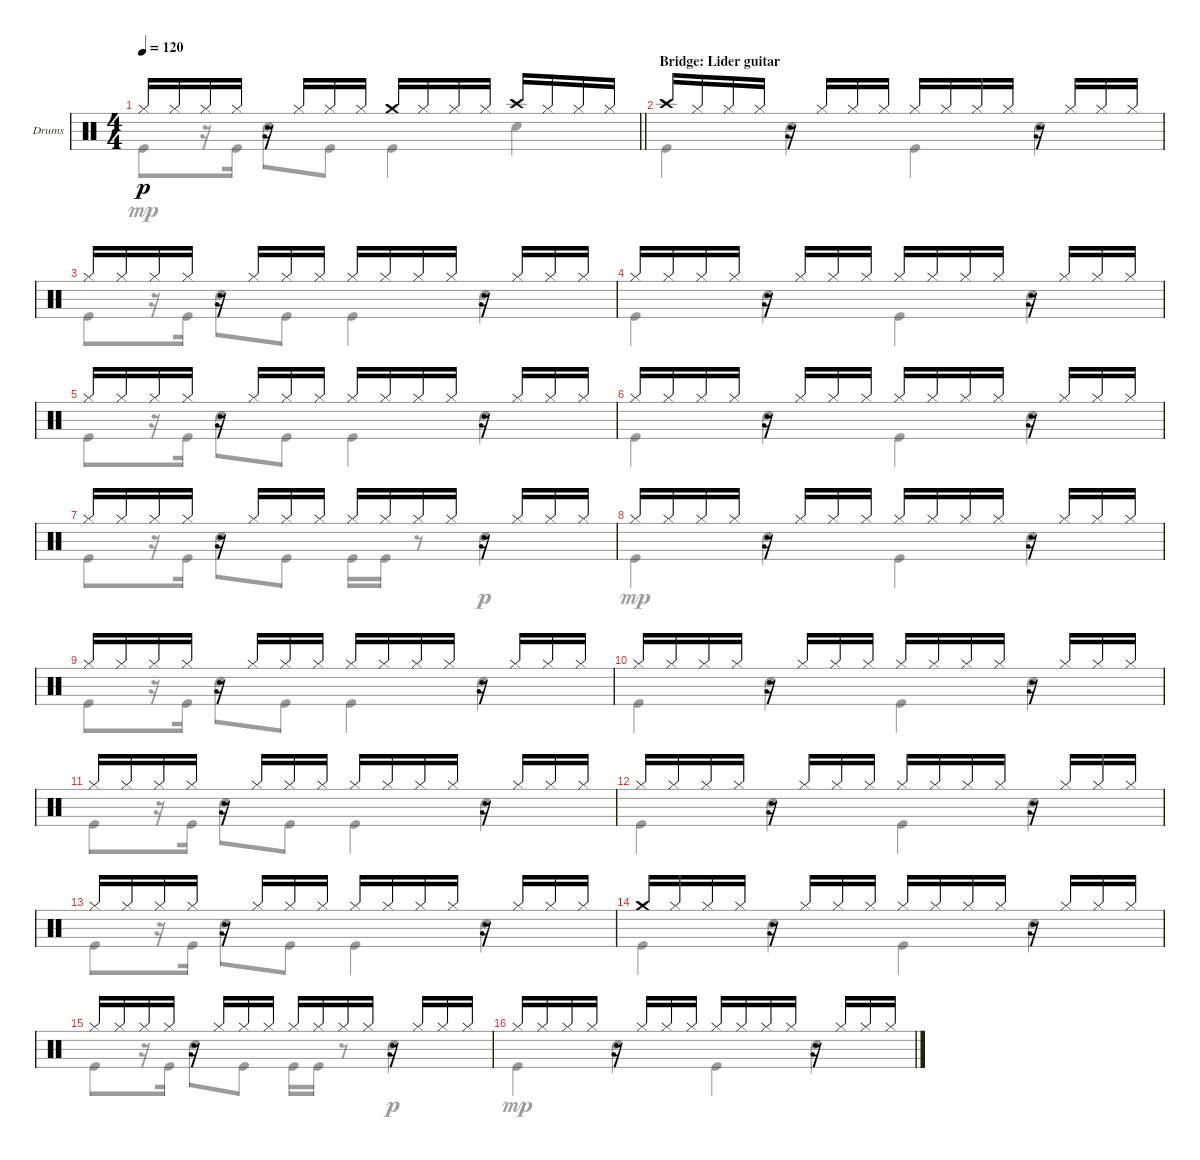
\bracketExtendMode groupsimilarinstruments
\firstSystemTrackNameOrientation horizontal
\otherSystemsTrackNameOrientation horizontal
\track ("Drumkit" "Drums") {instrument percussion}
\staff {score}
\articulation defaults
\voice
\ts (4 4)
\tempo 120
\clef neutral
\barLineRight lightlight
\ks c "Hi-Hat (closed)".16{dy p} "Hi-Hat (closed)".16 "Hi-Hat (closed)".16 "Hi-Hat (closed)".16
r.16 "Hi-Hat (closed)".16 "Hi-Hat (closed)".16 "Hi-Hat (closed)".16 "Crash medium (hit)".16 "Hi-Hat (closed)".16 "Hi-Hat (closed)".16 "Hi-Hat (closed)".16 "Crash high (hit)".16 "Hi-Hat (closed)".16 "Hi-Hat (closed)".16 "Hi-Hat (closed)".16 |
\section ("" "Bridge: Lider guitar")
"Crash high (hit)".16 "Hi-Hat (closed)".16 "Hi-Hat (closed)".16 "Hi-Hat (closed)".16 r.16 "Hi-Hat (closed)".16 "Hi-Hat (closed)".16 "Hi-Hat (closed)".16 "Hi-Hat (closed)".16 "Hi-Hat (closed)".16 "Hi-Hat (closed)".16 "Hi-Hat (closed)".16 r.16 "Hi-Hat (closed)".16 "Hi-Hat (closed)".16 "Hi-Hat (closed)".16 |
"Hi-Hat (closed)".16 "Hi-Hat (closed)".16 "Hi-Hat (closed)".16 "Hi-Hat (closed)".16 r.16 "Hi-Hat (closed)".16 "Hi-Hat (closed)".16 "Hi-Hat (closed)".16 "Hi-Hat (closed)".16 "Hi-Hat (closed)".16 "Hi-Hat (closed)".16 "Hi-Hat (closed)".16 r.16 "Hi-Hat (closed)".16 "Hi-Hat (closed)".16 "Hi-Hat (closed)".16 |
"Hi-Hat (closed)".16 "Hi-Hat (closed)".16 "Hi-Hat (closed)".16 "Hi-Hat (closed)".16 r.16 "Hi-Hat (closed)".16 "Hi-Hat (closed)".16 "Hi-Hat (closed)".16 "Hi-Hat (closed)".16 "Hi-Hat (closed)".16 "Hi-Hat (closed)".16 "Hi-Hat (closed)".16 r.16 "Hi-Hat (closed)".16 "Hi-Hat (closed)".16 "Hi-Hat (closed)".16 |
"Hi-Hat (closed)".16 "Hi-Hat (closed)".16 "Hi-Hat (closed)".16 "Hi-Hat (closed)".16 r.16 "Hi-Hat (closed)".16 "Hi-Hat (closed)".16 "Hi-Hat (closed)".16 "Hi-Hat (closed)".16 "Hi-Hat (closed)".16 "Hi-Hat (closed)".16 "Hi-Hat (closed)".16 r.16 "Hi-Hat (closed)".16 "Hi-Hat (closed)".16 "Hi-Hat (closed)".16 |
"Hi-Hat (closed)".16 "Hi-Hat (closed)".16 "Hi-Hat (closed)".16 "Hi-Hat (closed)".16 r.16 "Hi-Hat (closed)".16 "Hi-Hat (closed)".16 "Hi-Hat (closed)".16 "Hi-Hat (closed)".16 "Hi-Hat (closed)".16 "Hi-Hat (closed)".16 "Hi-Hat (closed)".16 r.16 "Hi-Hat (closed)".16 "Hi-Hat (closed)".16 "Hi-Hat (closed)".16 |
"Hi-Hat (closed)".16 "Hi-Hat (closed)".16 "Hi-Hat (closed)".16 "Hi-Hat (closed)".16 r.16 "Hi-Hat (closed)".16 "Hi-Hat (closed)".16 "Hi-Hat (closed)".16 "Hi-Hat (closed)".16 "Hi-Hat (closed)".16 "Hi-Hat (closed)".16 "Hi-Hat (closed)".16 r.16 "Hi-Hat (closed)".16 "Hi-Hat (closed)".16 "Hi-Hat (closed)".16 |
"Hi-Hat (closed)".16 "Hi-Hat (closed)".16 "Hi-Hat (closed)".16 "Hi-Hat (closed)".16 r.16 "Hi-Hat (closed)".16 "Hi-Hat (closed)".16 "Hi-Hat (closed)".16 "Hi-Hat (closed)".16 "Hi-Hat (closed)".16 "Hi-Hat (closed)".16 "Hi-Hat (closed)".16 r.16 "Hi-Hat (closed)".16 "Hi-Hat (closed)".16 "Hi-Hat (closed)".16 |
"Hi-Hat (closed)".16 "Hi-Hat (closed)".16 "Hi-Hat (closed)".16 "Hi-Hat (closed)".16 r.16 "Hi-Hat (closed)".16 "Hi-Hat (closed)".16 "Hi-Hat (closed)".16 "Hi-Hat (closed)".16 "Hi-Hat (closed)".16 "Hi-Hat (closed)".16 "Hi-Hat (closed)".16 r.16 "Hi-Hat (closed)".16 "Hi-Hat (closed)".16 "Hi-Hat (closed)".16 |
"Hi-Hat (closed)".16 "Hi-Hat (closed)".16 "Hi-Hat (closed)".16 "Hi-Hat (closed)".16 r.16 "Hi-Hat (closed)".16 "Hi-Hat (closed)".16 "Hi-Hat (closed)".16 "Hi-Hat (closed)".16 "Hi-Hat (closed)".16 "Hi-Hat (closed)".16 "Hi-Hat (closed)".16 r.16 "Hi-Hat (closed)".16 "Hi-Hat (closed)".16 "Hi-Hat (closed)".16 |
"Hi-Hat (closed)".16 "Hi-Hat (closed)".16 "Hi-Hat (closed)".16 "Hi-Hat (closed)".16 r.16 "Hi-Hat (closed)".16 "Hi-Hat (closed)".16 "Hi-Hat (closed)".16 "Hi-Hat (closed)".16 "Hi-Hat (closed)".16 "Hi-Hat (closed)".16 "Hi-Hat (closed)".16 r.16 "Hi-Hat (closed)".16 "Hi-Hat (closed)".16 "Hi-Hat (closed)".16 |
"Hi-Hat (closed)".16 "Hi-Hat (closed)".16 "Hi-Hat (closed)".16 "Hi-Hat (closed)".16 r.16 "Hi-Hat (closed)".16 "Hi-Hat (closed)".16 "Hi-Hat (closed)".16 "Hi-Hat (closed)".16 "Hi-Hat (closed)".16 "Hi-Hat (closed)".16 "Hi-Hat (closed)".16 r.16 "Hi-Hat (closed)".16 "Hi-Hat (closed)".16 "Hi-Hat (closed)".16 |
"Hi-Hat (closed)".16 "Hi-Hat (closed)".16 "Hi-Hat (closed)".16 "Hi-Hat (closed)".16 r.16 "Hi-Hat (closed)".16 "Hi-Hat (closed)".16 "Hi-Hat (closed)".16 "Hi-Hat (closed)".16 "Hi-Hat (closed)".16 "Hi-Hat (closed)".16 "Hi-Hat (closed)".16 r.16 "Hi-Hat (closed)".16 "Hi-Hat (closed)".16 "Hi-Hat (closed)".16 |
"Crash medium (hit)".16 "Hi-Hat (closed)".16 "Hi-Hat (closed)".16 "Hi-Hat (closed)".16 r.16 "Hi-Hat (closed)".16 "Hi-Hat (closed)".16 "Hi-Hat (closed)".16 "Hi-Hat (closed)".16 "Hi-Hat (closed)".16 "Hi-Hat (closed)".16 "Hi-Hat (closed)".16 r.16 "Hi-Hat (closed)".16 "Hi-Hat (closed)".16 "Hi-Hat (closed)".16 |
"Hi-Hat (closed)".16 "Hi-Hat (closed)".16 "Hi-Hat (closed)".16 "Hi-Hat (closed)".16 r.16 "Hi-Hat (closed)".16 "Hi-Hat (closed)".16 "Hi-Hat (closed)".16 "Hi-Hat (closed)".16 "Hi-Hat (closed)".16 "Hi-Hat (closed)".16 "Hi-Hat (closed)".16 r.16 "Hi-Hat (closed)".16 "Hi-Hat (closed)".16 "Hi-Hat (closed)".16 |
"Hi-Hat (closed)".16 "Hi-Hat (closed)".16 "Hi-Hat (closed)".16 "Hi-Hat (closed)".16 r.16 "Hi-Hat (closed)".16 "Hi-Hat (closed)".16 "Hi-Hat (closed)".16 "Hi-Hat (closed)".16 "Hi-Hat (closed)".16 "Hi-Hat (closed)".16 "Hi-Hat (closed)".16 r.16 "Hi-Hat (closed)".16 "Hi-Hat (closed)".16 "Hi-Hat (closed)".16
\voice
\clef neutral
\ottava regular
\simile none
\barLineRight lightlight
\ks c "Kick (hit)".8{dy mp}
r.16 "Kick (hit)".16 "Snare (hit) 2".8 "Kick (hit)".8 "Kick (hit)".4 "Snare (hit) 2".4 |
"Kick (hit)".4 "Snare (hit) 2".4 "Kick (hit)".4 "Snare (hit) 2".4 |
"Kick (hit)".8 r.16 "Kick (hit)".16 "Snare (hit) 2".8 "Kick (hit)".8 "Kick (hit)".4 "Snare (hit) 2".4 |
"Kick (hit)".4 "Snare (hit) 2".4 "Kick (hit)".4 "Snare (hit) 2".4 |
"Kick (hit)".8 r.16 "Kick (hit)".16 "Snare (hit) 2".8 "Kick (hit)".8 "Kick (hit)".4 "Snare (hit) 2".4 |
"Kick (hit)".4 "Snare (hit) 2".4 "Kick (hit)".4 "Snare (hit) 2".4 |
"Kick (hit)".8 r.16 "Kick (hit)".16 "Snare (hit) 2".8 "Kick (hit)".8 "Kick (hit)".16 "Kick (hit)".16 r.8 "Snare (hit) 2".4{dy p} |
"Kick (hit)".4{dy mp} "Snare (hit) 2".4 "Kick (hit)".4 "Snare (hit) 2".4 |
"Kick (hit)".8 r.16 "Kick (hit)".16 "Snare (hit) 2".8 "Kick (hit)".8 "Kick (hit)".4 "Snare (hit) 2".4 |
"Kick (hit)".4 "Snare (hit) 2".4 "Kick (hit)".4 "Snare (hit) 2".4 |
"Kick (hit)".8 r.16 "Kick (hit)".16 "Snare (hit) 2".8 "Kick (hit)".8 "Kick (hit)".4 "Snare (hit) 2".4 |
"Kick (hit)".4 "Snare (hit) 2".4 "Kick (hit)".4 "Snare (hit) 2".4 |
"Kick (hit)".8 r.16 "Kick (hit)".16 "Snare (hit) 2".8 "Kick (hit)".8 "Kick (hit)".4 "Snare (hit) 2".4 |
"Kick (hit)".4 "Snare (hit) 2".4 "Kick (hit)".4 "Snare (hit) 2".4 |
"Kick (hit)".8 r.16 "Kick (hit)".16 "Snare (hit) 2".8 "Kick (hit)".8 "Kick (hit)".16 "Kick (hit)".16 r.8 "Snare (hit) 2".4{dy p} |
"Kick (hit)".4{dy mp} "Snare (hit) 2".4 "Kick (hit)".4 "Snare (hit) 2".4
